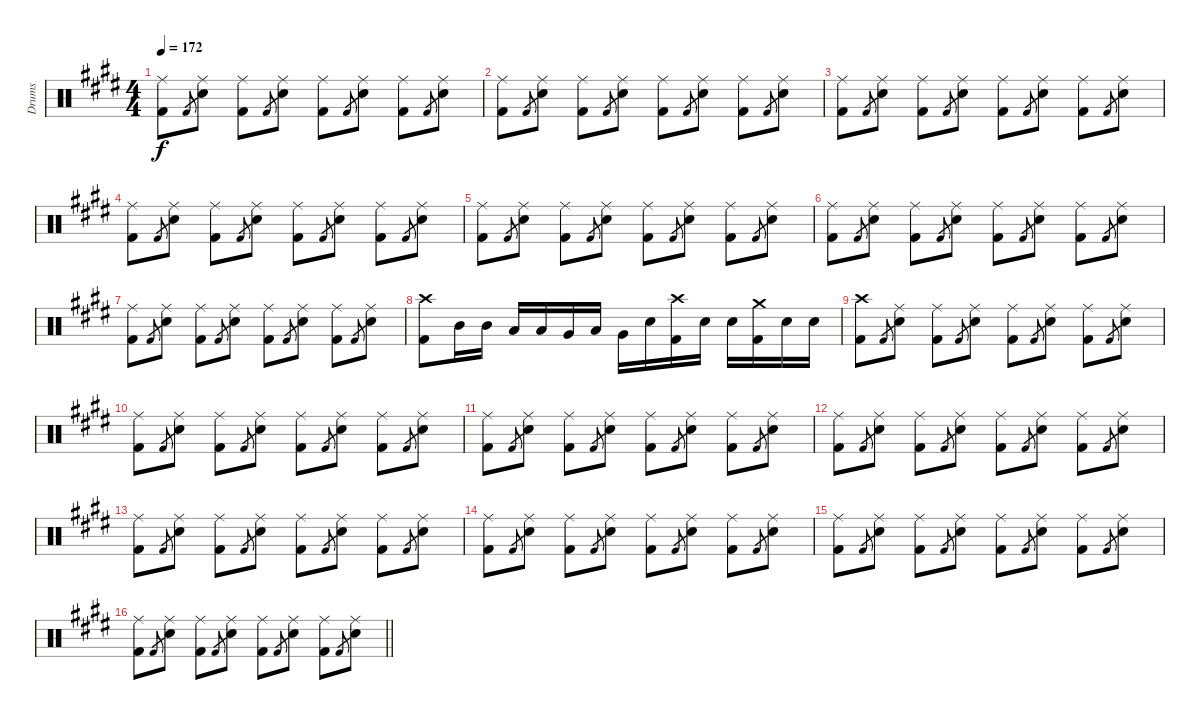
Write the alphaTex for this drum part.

\track ("Drums" "Drums") {instrument percussion}
\staff {score}
\articulation defaults
\ts (4 4)
\tempo 172
\clef neutral
\ks e
("Ride (middle)" "Kick (hit) 2").8{dy f} "Kick (hit) 2".8{gr} ("Ride (middle)" "Snare (hit) 2").8 ("Ride (middle)" "Kick (hit) 2").8 "Kick (hit) 2".8{gr} ("Ride (middle)" "Snare (hit) 2").8 ("Ride (middle)" "Kick (hit) 2").8 "Kick (hit) 2".8{gr} ("Ride (middle)" "Snare (hit) 2").8 ("Ride (middle)" "Kick (hit) 2").8 "Kick (hit) 2".8{gr} ("Ride (middle)" "Snare (hit) 2").8 |
("Ride (middle)" "Kick (hit) 2").8 "Kick (hit) 2".8{gr} ("Ride (middle)" "Snare (hit) 2").8 ("Ride (middle)" "Kick (hit) 2").8 "Kick (hit) 2".8{gr} ("Ride (middle)" "Snare (hit) 2").8 ("Ride (middle)" "Kick (hit) 2").8 "Kick (hit) 2".8{gr} ("Ride (middle)" "Snare (hit) 2").8 ("Ride (middle)" "Kick (hit) 2").8 "Kick (hit) 2".8{gr} ("Ride (middle)" "Snare (hit) 2").8 |
("Ride (middle)" "Kick (hit) 2").8 "Kick (hit) 2".8{gr} ("Ride (middle)" "Snare (hit) 2").8 ("Ride (middle)" "Kick (hit) 2").8 "Kick (hit) 2".8{gr} ("Ride (middle)" "Snare (hit) 2").8 ("Ride (middle)" "Kick (hit) 2").8 "Kick (hit) 2".8{gr} ("Ride (middle)" "Snare (hit) 2").8 ("Ride (middle)" "Kick (hit) 2").8 "Kick (hit) 2".8{gr} ("Ride (middle)" "Snare (hit) 2").8 |
("Ride (middle)" "Kick (hit) 2").8 "Kick (hit) 2".8{gr} ("Ride (middle)" "Snare (hit) 2").8 ("Ride (middle)" "Kick (hit) 2").8 "Kick (hit) 2".8{gr} ("Ride (middle)" "Snare (hit) 2").8 ("Ride (middle)" "Kick (hit) 2").8 "Kick (hit) 2".8{gr} ("Ride (middle)" "Snare (hit) 2").8 ("Ride (middle)" "Kick (hit) 2").8 "Kick (hit) 2".8{gr} ("Ride (middle)" "Snare (hit) 2").8 |
("Ride (middle)" "Kick (hit) 2").8 "Kick (hit) 2".8{gr} ("Ride (middle)" "Snare (hit) 2").8 ("Ride (middle)" "Kick (hit) 2").8 "Kick (hit) 2".8{gr} ("Ride (middle)" "Snare (hit) 2").8 ("Ride (middle)" "Kick (hit) 2").8 "Kick (hit) 2".8{gr} ("Ride (middle)" "Snare (hit) 2").8 ("Ride (middle)" "Kick (hit) 2").8 "Kick (hit) 2".8{gr} ("Ride (middle)" "Snare (hit) 2").8 |
("Ride (middle)" "Kick (hit) 2").8 "Kick (hit) 2".8{gr} ("Ride (middle)" "Snare (hit) 2").8 ("Ride (middle)" "Kick (hit) 2").8 "Kick (hit) 2".8{gr} ("Ride (middle)" "Snare (hit) 2").8 ("Ride (middle)" "Kick (hit) 2").8 "Kick (hit) 2".8{gr} ("Ride (middle)" "Snare (hit) 2").8 ("Ride (middle)" "Kick (hit) 2").8 "Kick (hit) 2".8{gr} ("Ride (middle)" "Snare (hit) 2").8 |
("Ride (middle)" "Kick (hit) 2").8 "Kick (hit) 2".8{gr} ("Ride (middle)" "Snare (hit) 2").8 ("Ride (middle)" "Kick (hit) 2").8 "Kick (hit) 2".8{gr} ("Ride (middle)" "Snare (hit) 2").8 ("Ride (middle)" "Kick (hit) 2").8 "Kick (hit) 2".8{gr} ("Ride (middle)" "Snare (hit) 2").8 ("Ride (middle)" "Kick (hit) 2").8 "Kick (hit) 2".8{gr} ("Ride (middle)" "Snare (hit) 2").8 |
("Crash high (hit)" "Kick (hit) 2").8 "Mid Tom (hit)".16 "Mid Tom (hit)".16 "Low Tom (hit)".16 "Low Tom (hit)".16 "Very Low Tom (hit)".16 "Low Tom (hit)".16 "Very Low Tom (hit)".16 "Snare (hit) 2".16 ("Crash high (hit)" "Kick (hit) 2").16 "Snare (hit) 2".16 "Snare (hit) 2".16 ("Crash medium (hit)" "Kick (hit) 2").16 "Snare (hit) 2".16 "Snare (hit) 2".16 |
("Crash high (hit)" "Kick (hit) 2").8 "Kick (hit) 2".8{gr} ("Ride (middle)" "Snare (hit) 2").8 ("Ride (middle)" "Kick (hit) 2").8 "Kick (hit) 2".8{gr} ("Ride (middle)" "Snare (hit) 2").8 ("Ride (middle)" "Kick (hit) 2").8 "Kick (hit) 2".8{gr} ("Ride (middle)" "Snare (hit) 2").8 ("Ride (middle)" "Kick (hit) 2").8 "Kick (hit) 2".8{gr} ("Ride (middle)" "Snare (hit) 2").8 |
("Ride (middle)" "Kick (hit) 2").8 "Kick (hit) 2".8{gr} ("Ride (middle)" "Snare (hit) 2").8 ("Ride (middle)" "Kick (hit) 2").8 "Kick (hit) 2".8{gr} ("Ride (middle)" "Snare (hit) 2").8 ("Ride (middle)" "Kick (hit) 2").8 "Kick (hit) 2".8{gr} ("Ride (middle)" "Snare (hit) 2").8 ("Ride (middle)" "Kick (hit) 2").8 "Kick (hit) 2".8{gr} ("Ride (middle)" "Snare (hit) 2").8 |
("Ride (middle)" "Kick (hit) 2").8 "Kick (hit) 2".8{gr} ("Ride (middle)" "Snare (hit) 2").8 ("Ride (middle)" "Kick (hit) 2").8 "Kick (hit) 2".8{gr} ("Ride (middle)" "Snare (hit) 2").8 ("Ride (middle)" "Kick (hit) 2").8 "Kick (hit) 2".8{gr} ("Ride (middle)" "Snare (hit) 2").8 ("Ride (middle)" "Kick (hit) 2").8 "Kick (hit) 2".8{gr} ("Ride (middle)" "Snare (hit) 2").8 |
("Ride (middle)" "Kick (hit) 2").8 "Kick (hit) 2".8{gr} ("Ride (middle)" "Snare (hit) 2").8 ("Ride (middle)" "Kick (hit) 2").8 "Kick (hit) 2".8{gr} ("Ride (middle)" "Snare (hit) 2").8 ("Ride (middle)" "Kick (hit) 2").8 "Kick (hit) 2".8{gr} ("Ride (middle)" "Snare (hit) 2").8 ("Ride (middle)" "Kick (hit) 2").8 "Kick (hit) 2".8{gr} ("Ride (middle)" "Snare (hit) 2").8 |
("Ride (middle)" "Kick (hit) 2").8 "Kick (hit) 2".8{gr} ("Ride (middle)" "Snare (hit) 2").8 ("Ride (middle)" "Kick (hit) 2").8 "Kick (hit) 2".8{gr} ("Ride (middle)" "Snare (hit) 2").8 ("Ride (middle)" "Kick (hit) 2").8 "Kick (hit) 2".8{gr} ("Ride (middle)" "Snare (hit) 2").8 ("Ride (middle)" "Kick (hit) 2").8 "Kick (hit) 2".8{gr} ("Ride (middle)" "Snare (hit) 2").8 |
("Ride (middle)" "Kick (hit) 2").8 "Kick (hit) 2".8{gr} ("Ride (middle)" "Snare (hit) 2").8 ("Ride (middle)" "Kick (hit) 2").8 "Kick (hit) 2".8{gr} ("Ride (middle)" "Snare (hit) 2").8 ("Ride (middle)" "Kick (hit) 2").8 "Kick (hit) 2".8{gr} ("Ride (middle)" "Snare (hit) 2").8 ("Ride (middle)" "Kick (hit) 2").8 "Kick (hit) 2".8{gr} ("Ride (middle)" "Snare (hit) 2").8 |
("Ride (middle)" "Kick (hit) 2").8 "Kick (hit) 2".8{gr} ("Ride (middle)" "Snare (hit) 2").8 ("Ride (middle)" "Kick (hit) 2").8 "Kick (hit) 2".8{gr} ("Ride (middle)" "Snare (hit) 2").8 ("Ride (middle)" "Kick (hit) 2").8 "Kick (hit) 2".8{gr} ("Ride (middle)" "Snare (hit) 2").8 ("Ride (middle)" "Kick (hit) 2").8 "Kick (hit) 2".8{gr} ("Ride (middle)" "Snare (hit) 2").8 |
\barLineRight lightlight
("Ride (middle)" "Kick (hit) 2").8 "Kick (hit) 2".8{gr} ("Ride (middle)" "Snare (hit) 2").8 ("Ride (middle)" "Kick (hit) 2").8 "Kick (hit) 2".8{gr} ("Ride (middle)" "Snare (hit) 2").8 ("Ride (middle)" "Kick (hit) 2").8 "Kick (hit) 2".8{gr} ("Ride (middle)" "Snare (hit) 2").8 ("Ride (middle)" "Kick (hit) 2").8 "Kick (hit) 2".8{gr} ("Ride (middle)" "Snare (hit) 2").8
